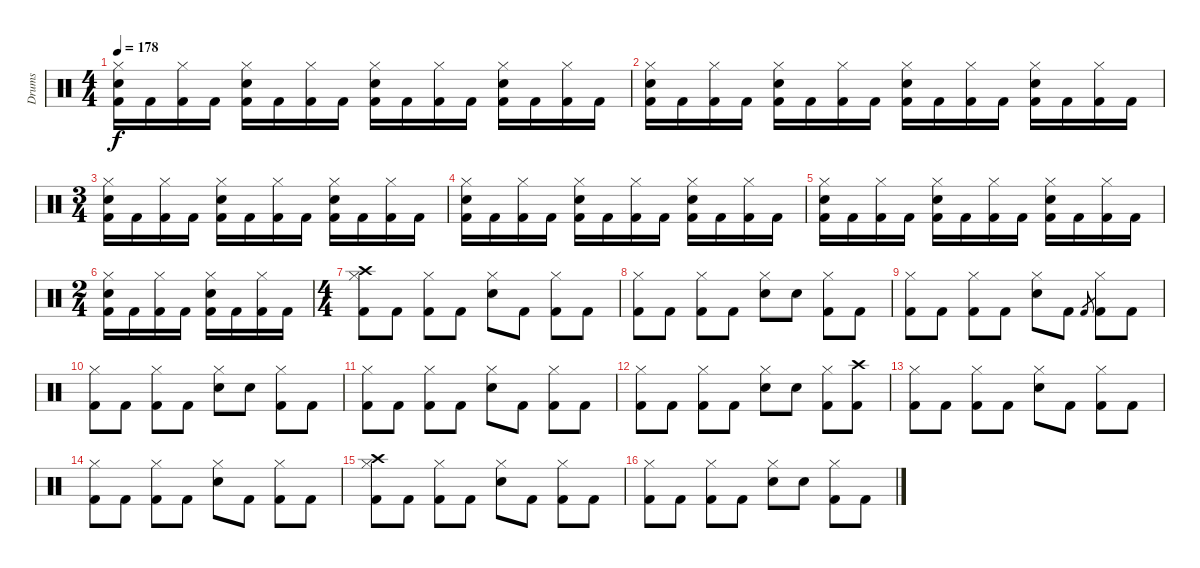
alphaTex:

\track ("Drums" "Drums") {instrument percussion}
\staff {score}
\articulation defaults
\ts (4 4)
\tempo 178
\clef neutral
\ks c
("Kick (hit) 2" "Snare (hit) 2" "Hi-Hat (closed)").16{dy f} "Kick (hit) 2".16 ("Kick (hit) 2" "Hi-Hat (closed)").16 "Kick (hit) 2".16 ("Kick (hit) 2" "Snare (hit) 2" "Hi-Hat (closed)").16 "Kick (hit) 2".16 ("Kick (hit) 2" "Hi-Hat (closed)").16 "Kick (hit) 2".16 ("Kick (hit) 2" "Snare (hit) 2" "Hi-Hat (closed)").16 "Kick (hit) 2".16 ("Kick (hit) 2" "Hi-Hat (closed)").16 "Kick (hit) 2".16 ("Kick (hit) 2" "Snare (hit) 2" "Hi-Hat (closed)").16 "Kick (hit) 2".16 ("Kick (hit) 2" "Hi-Hat (closed)").16 "Kick (hit) 2".16 |
("Kick (hit) 2" "Snare (hit) 2" "Hi-Hat (closed)").16 "Kick (hit) 2".16 ("Kick (hit) 2" "Hi-Hat (closed)").16 "Kick (hit) 2".16 ("Kick (hit) 2" "Snare (hit) 2" "Hi-Hat (closed)").16 "Kick (hit) 2".16 ("Kick (hit) 2" "Hi-Hat (closed)").16 "Kick (hit) 2".16 ("Kick (hit) 2" "Snare (hit) 2" "Hi-Hat (closed)").16 "Kick (hit) 2".16 ("Kick (hit) 2" "Hi-Hat (closed)").16 "Kick (hit) 2".16 ("Kick (hit) 2" "Snare (hit) 2" "Hi-Hat (closed)").16 "Kick (hit) 2".16 ("Kick (hit) 2" "Hi-Hat (closed)").16 "Kick (hit) 2".16 |
\ts (3 4)
("Kick (hit) 2" "Snare (hit) 2" "Hi-Hat (closed)").16 "Kick (hit) 2".16 ("Kick (hit) 2" "Hi-Hat (closed)").16 "Kick (hit) 2".16 ("Kick (hit) 2" "Snare (hit) 2" "Hi-Hat (closed)").16 "Kick (hit) 2".16 ("Kick (hit) 2" "Hi-Hat (closed)").16 "Kick (hit) 2".16 ("Kick (hit) 2" "Snare (hit) 2" "Hi-Hat (closed)").16 "Kick (hit) 2".16 ("Kick (hit) 2" "Hi-Hat (closed)").16 "Kick (hit) 2".16 |
("Kick (hit) 2" "Snare (hit) 2" "Hi-Hat (closed)").16 "Kick (hit) 2".16 ("Kick (hit) 2" "Hi-Hat (closed)").16 "Kick (hit) 2".16 ("Kick (hit) 2" "Snare (hit) 2" "Hi-Hat (closed)").16 "Kick (hit) 2".16 ("Kick (hit) 2" "Hi-Hat (closed)").16 "Kick (hit) 2".16 ("Kick (hit) 2" "Snare (hit) 2" "Hi-Hat (closed)").16 "Kick (hit) 2".16 ("Kick (hit) 2" "Hi-Hat (closed)").16 "Kick (hit) 2".16 |
("Kick (hit) 2" "Snare (hit) 2" "Hi-Hat (closed)").16 "Kick (hit) 2".16 ("Kick (hit) 2" "Hi-Hat (closed)").16 "Kick (hit) 2".16 ("Kick (hit) 2" "Snare (hit) 2" "Hi-Hat (closed)").16 "Kick (hit) 2".16 ("Kick (hit) 2" "Hi-Hat (closed)").16 "Kick (hit) 2".16 ("Kick (hit) 2" "Snare (hit) 2" "Hi-Hat (closed)").16 "Kick (hit) 2".16 ("Kick (hit) 2" "Hi-Hat (closed)").16 "Kick (hit) 2".16 |
\ts (2 4)
("Kick (hit) 2" "Snare (hit) 2" "Hi-Hat (closed)").16 "Kick (hit) 2".16 ("Kick (hit) 2" "Hi-Hat (closed)").16 "Kick (hit) 2".16 ("Kick (hit) 2" "Snare (hit) 2" "Hi-Hat (closed)").16 "Kick (hit) 2".16 ("Kick (hit) 2" "Hi-Hat (closed)").16 "Kick (hit) 2".16 |
\ts (4 4)
("Kick (hit) 2" "Hi-Hat (closed)" "Crash high (hit)").8 "Kick (hit) 2".8 ("Kick (hit) 2" "Hi-Hat (closed)").8 "Kick (hit) 2".8 ("Snare (hit) 2" "Hi-Hat (closed)").8 "Kick (hit) 2".8 ("Kick (hit) 2" "Hi-Hat (closed)").8 "Kick (hit) 2".8 |
("Kick (hit) 2" "Hi-Hat (closed)").8 "Kick (hit) 2".8 ("Kick (hit) 2" "Hi-Hat (closed)").8 "Kick (hit) 2".8 ("Snare (hit) 2" "Hi-Hat (closed)").8 "Snare (hit) 2".8 ("Kick (hit) 2" "Hi-Hat (closed)").8 "Kick (hit) 2".8 |
("Kick (hit) 2" "Hi-Hat (closed)").8 "Kick (hit) 2".8 ("Kick (hit) 2" "Hi-Hat (closed)").8 "Kick (hit) 2".8 ("Snare (hit) 2" "Hi-Hat (closed)").8 "Kick (hit) 2".8 "Kick (hit) 2".8{gr} ("Kick (hit) 2" "Hi-Hat (closed)").8 "Kick (hit) 2".8 |
("Kick (hit) 2" "Hi-Hat (closed)").8 "Kick (hit) 2".8 ("Kick (hit) 2" "Hi-Hat (closed)").8 "Kick (hit) 2".8 ("Snare (hit) 2" "Hi-Hat (closed)").8 "Snare (hit) 2".8 ("Kick (hit) 2" "Hi-Hat (closed)").8 "Kick (hit) 2".8 |
("Kick (hit) 2" "Hi-Hat (closed)").8 "Kick (hit) 2".8 ("Kick (hit) 2" "Hi-Hat (closed)").8 "Kick (hit) 2".8 ("Snare (hit) 2" "Hi-Hat (closed)").8 "Kick (hit) 2".8 ("Kick (hit) 2" "Hi-Hat (closed)").8 "Kick (hit) 2".8 |
("Kick (hit) 2" "Hi-Hat (closed)").8 "Kick (hit) 2".8 ("Kick (hit) 2" "Hi-Hat (closed)").8 "Kick (hit) 2".8 ("Snare (hit) 2" "Hi-Hat (closed)").8 "Snare (hit) 2".8 ("Kick (hit) 2" "Hi-Hat (closed)").8 ("Kick (hit) 2" "Crash high (hit)").8 |
("Kick (hit) 2" "Hi-Hat (closed)").8 "Kick (hit) 2".8 ("Kick (hit) 2" "Hi-Hat (closed)").8 "Kick (hit) 2".8 ("Snare (hit) 2" "Hi-Hat (closed)").8 "Kick (hit) 2".8 ("Kick (hit) 2" "Hi-Hat (closed)").8 "Kick (hit) 2".8 |
("Kick (hit) 2" "Hi-Hat (closed)").8 "Kick (hit) 2".8 ("Kick (hit) 2" "Hi-Hat (closed)").8 "Kick (hit) 2".8 ("Snare (hit) 2" "Hi-Hat (closed)").8 "Kick (hit) 2".8 ("Kick (hit) 2" "Hi-Hat (closed)").8 "Kick (hit) 2".8 |
("Kick (hit) 2" "Hi-Hat (closed)" "Crash high (hit)").8 "Kick (hit) 2".8 ("Kick (hit) 2" "Hi-Hat (closed)").8 "Kick (hit) 2".8 ("Snare (hit) 2" "Hi-Hat (closed)").8 "Kick (hit) 2".8 ("Kick (hit) 2" "Hi-Hat (closed)").8 "Kick (hit) 2".8 |
("Kick (hit) 2" "Hi-Hat (closed)").8 "Kick (hit) 2".8 ("Kick (hit) 2" "Hi-Hat (closed)").8 "Kick (hit) 2".8 ("Snare (hit) 2" "Hi-Hat (closed)").8 "Snare (hit) 2".8 ("Kick (hit) 2" "Hi-Hat (closed)").8 "Kick (hit) 2".8
